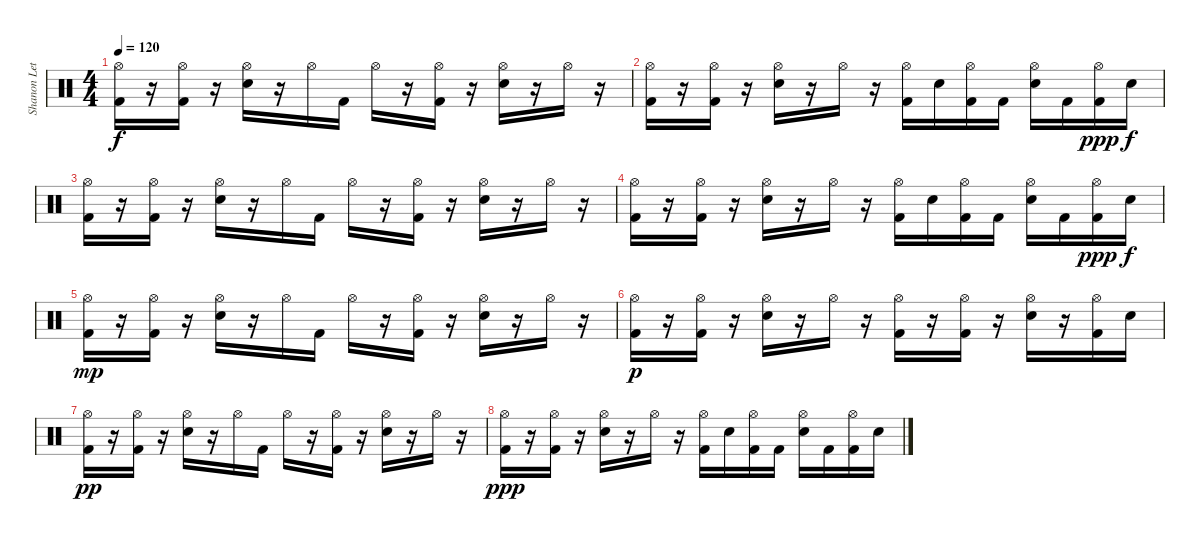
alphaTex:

\track ("Shanon Leto(Drums)" "Shanon Let") {instrument percussion}
\staff {score}
\articulation defaults
\ts (4 4)
\tempo 120
\clef neutral
\ks c
("Hi-Hat (open)" "Kick (hit) 2").16{dy f} r.16 ("Hi-Hat (open)" "Kick (hit) 2").16 r.16 ("Hi-Hat (open)" "Electric Snare (hit)").16 r.16 "Hi-Hat (open)".16 "Kick (hit) 2".16 "Hi-Hat (open)".16 r.16 ("Hi-Hat (open)" "Kick (hit) 2").16 r.16 ("Hi-Hat (open)" "Electric Snare (hit)").16 r.16 "Hi-Hat (open)".16 r.16 |
("Hi-Hat (open)" "Kick (hit) 2").16 r.16 ("Hi-Hat (open)" "Kick (hit) 2").16 r.16 ("Hi-Hat (open)" "Electric Snare (hit)").16 r.16 "Hi-Hat (open)".16 r.16 ("Hi-Hat (open)" "Kick (hit) 2").16 "Electric Snare (hit)".16 ("Hi-Hat (open)" "Kick (hit) 2").16 "Kick (hit) 2".16 ("Hi-Hat (open)" "Electric Snare (hit)").16 "Kick (hit) 2".16 ("Hi-Hat (open)" "Kick (hit) 2").16{dy ppp} "Electric Snare (hit)".16{dy f} |
("Hi-Hat (open)" "Kick (hit) 2").16 r.16 ("Hi-Hat (open)" "Kick (hit) 2").16 r.16 ("Hi-Hat (open)" "Electric Snare (hit)").16 r.16 "Hi-Hat (open)".16 "Kick (hit) 2".16 "Hi-Hat (open)".16 r.16 ("Hi-Hat (open)" "Kick (hit) 2").16 r.16 ("Hi-Hat (open)" "Electric Snare (hit)").16 r.16 "Hi-Hat (open)".16 r.16 |
("Hi-Hat (open)" "Kick (hit) 2").16 r.16 ("Hi-Hat (open)" "Kick (hit) 2").16 r.16 ("Hi-Hat (open)" "Electric Snare (hit)").16 r.16 "Hi-Hat (open)".16 r.16 ("Hi-Hat (open)" "Kick (hit) 2").16 "Electric Snare (hit)".16 ("Hi-Hat (open)" "Kick (hit) 2").16 "Kick (hit) 2".16 ("Hi-Hat (open)" "Electric Snare (hit)").16 "Kick (hit) 2".16 ("Hi-Hat (open)" "Kick (hit) 2").16{dy ppp} "Electric Snare (hit)".16{dy f} |
("Hi-Hat (open)" "Kick (hit) 2").16{dy mp volume 7} r.16 ("Hi-Hat (open)" "Kick (hit) 2").16 r.16 ("Hi-Hat (open)" "Electric Snare (hit)").16 r.16 "Hi-Hat (open)".16 "Kick (hit) 2".16 "Hi-Hat (open)".16 r.16 ("Hi-Hat (open)" "Kick (hit) 2").16 r.16 ("Hi-Hat (open)" "Electric Snare (hit)").16 r.16 "Hi-Hat (open)".16 r.16 |
("Hi-Hat (open)" "Kick (hit) 2").16{dy p} r.16 ("Hi-Hat (open)" "Kick (hit) 2").16 r.16 ("Hi-Hat (open)" "Electric Snare (hit)").16 r.16 "Hi-Hat (open)".16 r.16 ("Hi-Hat (open)" "Kick (hit) 2").16 r.16 ("Hi-Hat (open)" "Kick (hit) 2").16 r.16 ("Hi-Hat (open)" "Electric Snare (hit)").16 r.16 ("Hi-Hat (open)" "Kick (hit) 2").16 "Electric Snare (hit)".16 |
("Hi-Hat (open)" "Kick (hit) 2").16{dy pp} r.16 ("Hi-Hat (open)" "Kick (hit) 2").16 r.16 ("Hi-Hat (open)" "Electric Snare (hit)").16 r.16 "Hi-Hat (open)".16 "Kick (hit) 2".16 "Hi-Hat (open)".16 r.16 ("Hi-Hat (open)" "Kick (hit) 2").16 r.16 ("Hi-Hat (open)" "Electric Snare (hit)").16 r.16 "Hi-Hat (open)".16 r.16 |
("Hi-Hat (open)" "Kick (hit) 2").16{dy ppp} r.16 ("Hi-Hat (open)" "Kick (hit) 2").16 r.16 ("Hi-Hat (open)" "Electric Snare (hit)").16 r.16 "Hi-Hat (open)".16 r.16 ("Hi-Hat (open)" "Kick (hit) 2").16 "Electric Snare (hit)".16 ("Hi-Hat (open)" "Kick (hit) 2").16 "Kick (hit) 2".16 ("Hi-Hat (open)" "Electric Snare (hit)").16 "Kick (hit) 2".16 ("Hi-Hat (open)" "Kick (hit) 2").16 "Electric Snare (hit)".16
